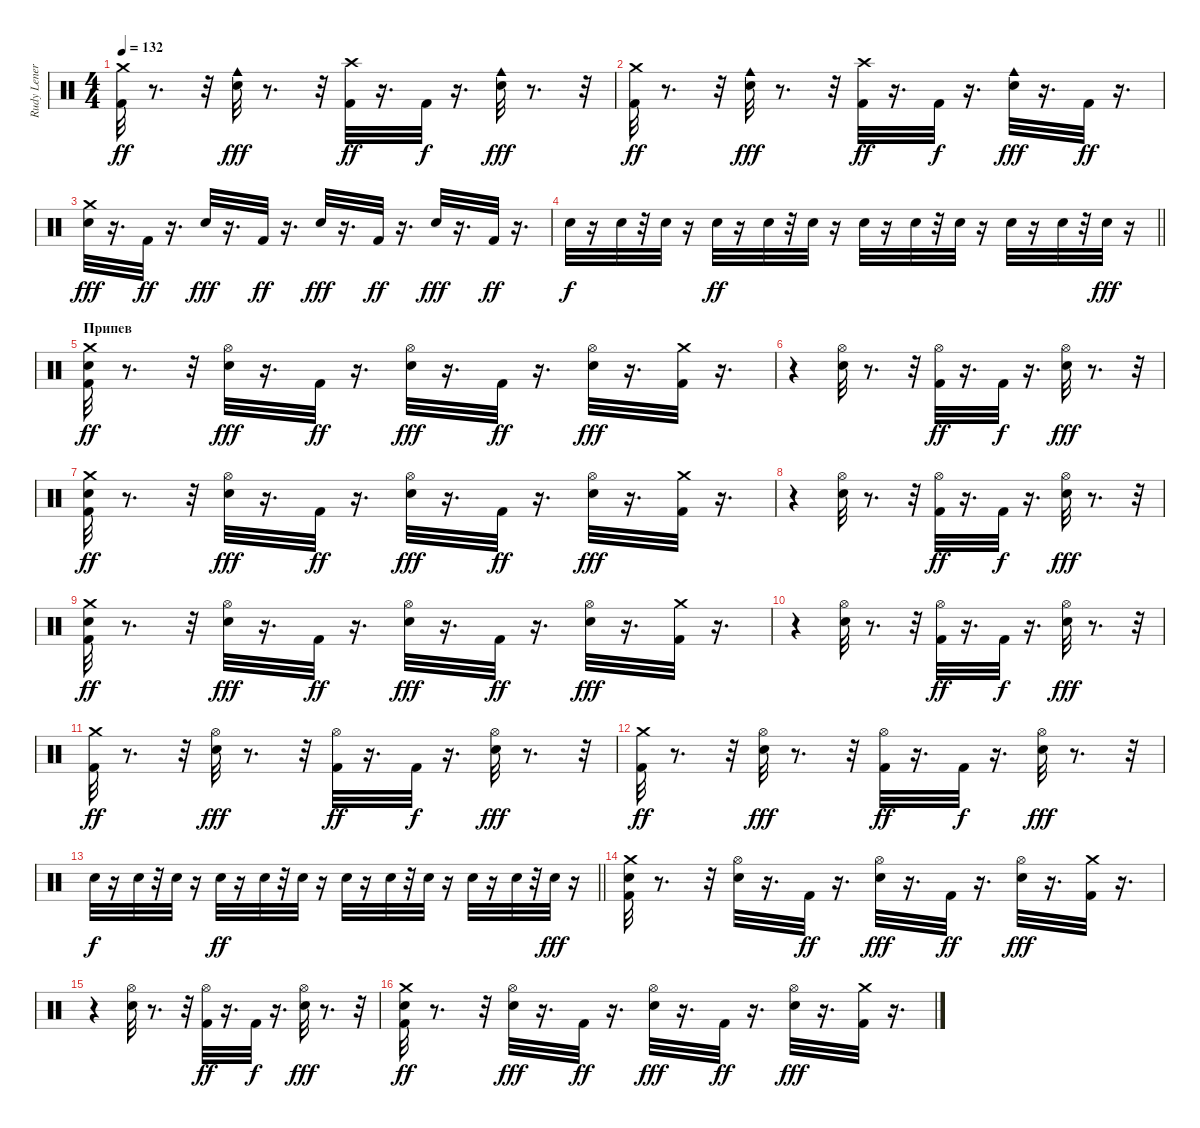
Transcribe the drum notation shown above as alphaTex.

\track ("Rudy Leners" "Rudy Lener") {instrument percussion}
\staff {score}
\articulation defaults
\ts (4 4)
\tempo 132
\clef neutral
\ks c
("Crash medium (hit)" "Kick (hit) 2").32{dy ff} r.8{d} r.32 ("Snare (hit) 2" "Cowbell medium (hit)").32{dy fff} r.8{d} r.32 ("Crash high (hit)" "Kick (hit) 2").32{dy ff} r.16{d} "Kick (hit) 2".32{dy f} r.16{d} ("Snare (hit) 2" "Cowbell medium (hit)").32{dy fff} r.8{d} r.32 |
("Crash medium (hit)" "Kick (hit) 2").32{dy ff} r.8{d} r.32 ("Cowbell medium (hit)" "Snare (hit) 2").32{dy fff} r.8{d} r.32 ("Crash high (hit)" "Kick (hit) 2").32{dy ff} r.16{d} "Kick (hit) 2".32{dy f} r.16{d} ("Cowbell medium (hit)" "Snare (hit) 2").32{dy fff} r.16{d} "Kick (hit) 2".32{dy ff} r.16{d} |
("Crash medium (hit)" "Snare (hit) 2").32{dy fff} r.16{d} "Kick (hit) 2".32{dy ff} r.16{d} "Snare (hit) 2".32{dy fff} r.16{d} "Kick (hit) 2".32{dy ff} r.16{d} "Snare (hit) 2".32{dy fff} r.16{d} "Kick (hit) 2".32{dy ff} r.16{d} "Snare (hit) 2".32{dy fff} r.16{d} "Kick (hit) 2".32{dy ff} r.16{d} |
\barLineRight lightlight "Snare (hit) 2".32{dy f}
r.16 "Snare (hit) 2".32 r.32 "Snare (hit) 2".32 r.16 "Snare (hit) 2".32{dy ff} r.16 "Snare (hit) 2".32 r.32 "Snare (hit) 2".32 r.16 "Snare (hit) 2".32 r.16 "Snare (hit) 2".32 r.32 "Snare (hit) 2".32 r.16 "Snare (hit) 2".32 r.16 "Snare (hit) 2".32 r.32 "Snare (hit) 2".32{dy fff} r.16 |
\section ("" "Припев")
("Snare (hit) 2" "Crash medium (hit)" "Kick (hit) 2").32{dy ff} r.8{d} r.32 ("Hi-Hat (open)" "Snare (hit) 2").32{dy fff} r.16{d} "Kick (hit) 2".32{dy ff} r.16{d} ("Hi-Hat (open)" "Snare (hit) 2").32{dy fff} r.16{d} "Kick (hit) 2".32{dy ff} r.16{d} ("Hi-Hat (open)" "Snare (hit) 2").32{dy fff} r.16{d} ("Kick (hit) 2" "Crash medium (hit)").32 r.16{d} |
r.4 ("Hi-Hat (open)" "Snare (hit) 2").32 r.8{d} r.32 ("Hi-Hat (open)" "Kick (hit) 2").32{dy ff} r.16{d} "Kick (hit) 2".32{dy f} r.16{d} ("Hi-Hat (open)" "Snare (hit) 2").32{dy fff} r.8{d} r.32 |
("Snare (hit) 2" "Crash medium (hit)" "Kick (hit) 2").32{dy ff} r.8{d} r.32 ("Hi-Hat (open)" "Snare (hit) 2").32{dy fff} r.16{d} "Kick (hit) 2".32{dy ff} r.16{d} ("Hi-Hat (open)" "Snare (hit) 2").32{dy fff} r.16{d} "Kick (hit) 2".32{dy ff} r.16{d} ("Hi-Hat (open)" "Snare (hit) 2").32{dy fff} r.16{d} ("Kick (hit) 2" "Crash medium (hit)").32 r.16{d} |
r.4 ("Hi-Hat (open)" "Snare (hit) 2").32 r.8{d} r.32 ("Hi-Hat (open)" "Kick (hit) 2").32{dy ff} r.16{d} "Kick (hit) 2".32{dy f} r.16{d} ("Hi-Hat (open)" "Snare (hit) 2").32{dy fff} r.8{d} r.32 |
("Snare (hit) 2" "Crash medium (hit)" "Kick (hit) 2").32{dy ff} r.8{d} r.32 ("Hi-Hat (open)" "Snare (hit) 2").32{dy fff} r.16{d} "Kick (hit) 2".32{dy ff} r.16{d} ("Hi-Hat (open)" "Snare (hit) 2").32{dy fff} r.16{d} "Kick (hit) 2".32{dy ff} r.16{d} ("Hi-Hat (open)" "Snare (hit) 2").32{dy fff} r.16{d} ("Kick (hit) 2" "Crash medium (hit)").32 r.16{d} |
r.4 ("Hi-Hat (open)" "Snare (hit) 2").32 r.8{d} r.32 ("Hi-Hat (open)" "Kick (hit) 2").32{dy ff} r.16{d} "Kick (hit) 2".32{dy f} r.16{d} ("Hi-Hat (open)" "Snare (hit) 2").32{dy fff} r.8{d} r.32 |
("Crash medium (hit)" "Kick (hit) 2").32{dy ff} r.8{d} r.32 ("Hi-Hat (open)" "Snare (hit) 2").32{dy fff} r.8{d} r.32 ("Hi-Hat (open)" "Kick (hit) 2").32{dy ff} r.16{d} "Kick (hit) 2".32{dy f} r.16{d} ("Hi-Hat (open)" "Snare (hit) 2").32{dy fff} r.8{d} r.32 |
("Crash medium (hit)" "Kick (hit) 2").32{dy ff} r.8{d} r.32 ("Hi-Hat (open)" "Snare (hit) 2").32{dy fff} r.8{d} r.32 ("Hi-Hat (open)" "Kick (hit) 2").32{dy ff} r.16{d} "Kick (hit) 2".32{dy f} r.16{d} ("Hi-Hat (open)" "Snare (hit) 2").32{dy fff} r.8{d} r.32 |
\barLineRight lightlight "Snare (hit) 2".32{dy f}
r.16 "Snare (hit) 2".32 r.32 "Snare (hit) 2".32 r.16 "Snare (hit) 2".32{dy ff} r.16 "Snare (hit) 2".32 r.32 "Snare (hit) 2".32 r.16 "Snare (hit) 2".32 r.16 "Snare (hit) 2".32 r.32 "Snare (hit) 2".32 r.16 "Snare (hit) 2".32 r.16 "Snare (hit) 2".32 r.32 "Snare (hit) 2".32{dy fff} r.16 |
("Snare (hit) 2" "Crash medium (hit)" "Kick (hit) 2").32 r.8{d} r.32 ("Hi-Hat (open)" "Snare (hit) 2").32 r.16{d} "Kick (hit) 2".32{dy ff} r.16{d} ("Hi-Hat (open)" "Snare (hit) 2").32{dy fff} r.16{d} "Kick (hit) 2".32{dy ff} r.16{d} ("Hi-Hat (open)" "Snare (hit) 2").32{dy fff} r.16{d} ("Kick (hit) 2" "Crash medium (hit)").32 r.16{d} |
r.4 ("Hi-Hat (open)" "Snare (hit) 2").32 r.8{d} r.32 ("Hi-Hat (open)" "Kick (hit) 2").32{dy ff} r.16{d} "Kick (hit) 2".32{dy f} r.16{d} ("Hi-Hat (open)" "Snare (hit) 2").32{dy fff} r.8{d} r.32 |
("Snare (hit) 2" "Crash medium (hit)" "Kick (hit) 2").32{dy ff} r.8{d} r.32 ("Hi-Hat (open)" "Snare (hit) 2").32{dy fff} r.16{d} "Kick (hit) 2".32{dy ff} r.16{d} ("Hi-Hat (open)" "Snare (hit) 2").32{dy fff} r.16{d} "Kick (hit) 2".32{dy ff} r.16{d} ("Hi-Hat (open)" "Snare (hit) 2").32{dy fff} r.16{d} ("Kick (hit) 2" "Crash medium (hit)").32 r.16{d}
